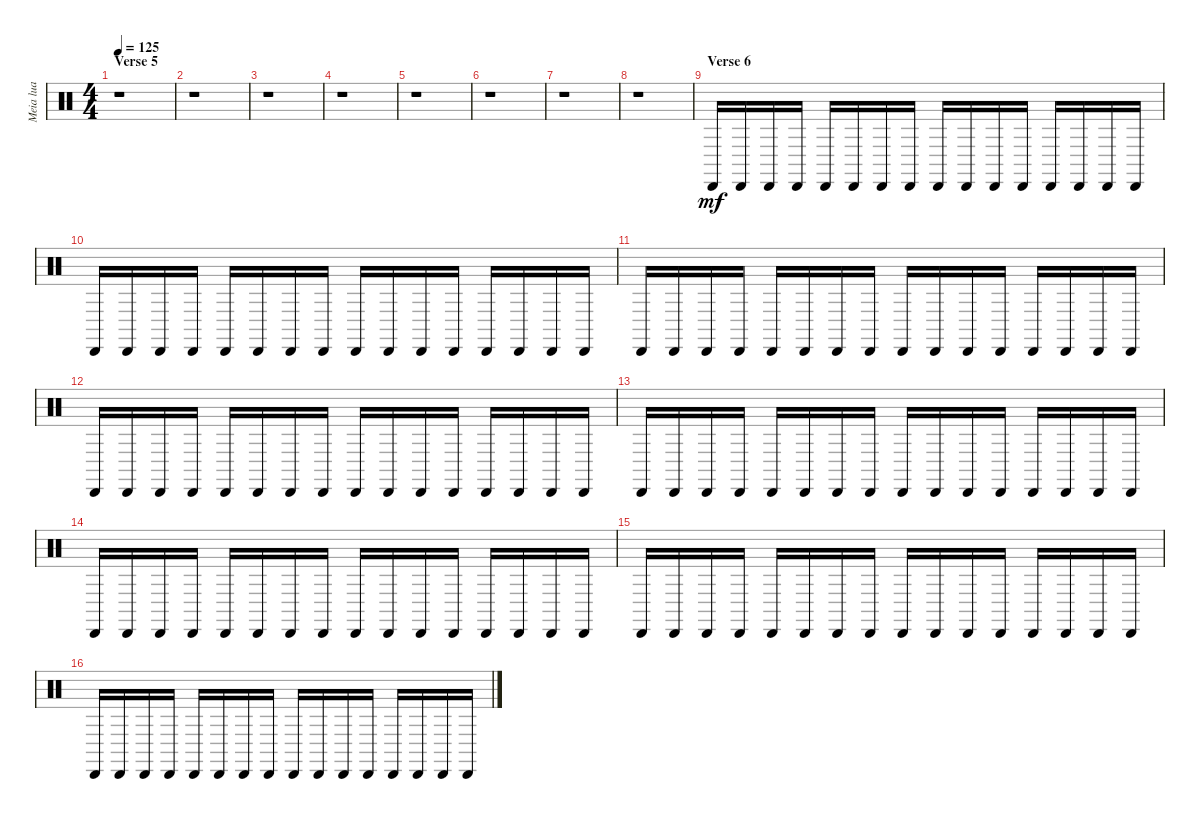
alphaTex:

\track ("Meia lua" "Meia lua") {instrument percussion}
\staff {score}
\articulation defaults
\ts (4 4)
\section ("" "Verse 5")
\tempo 125
\clef neutral
\ks c
r.1{dy mf} |
r.1 |
r.1 |
r.1 |
r.1 |
r.1 |
r.1 |
r.1 |
\section ("" "Verse 6")
"Cabasa (hit)".16 "Cabasa (hit)".16 "Cabasa (hit)".16 "Cabasa (hit)".16 "Cabasa (hit)".16 "Cabasa (hit)".16 "Cabasa (hit)".16 "Cabasa (hit)".16 "Cabasa (hit)".16 "Cabasa (hit)".16 "Cabasa (hit)".16 "Cabasa (hit)".16 "Cabasa (hit)".16 "Cabasa (hit)".16 "Cabasa (hit)".16 "Cabasa (hit)".16 |
"Cabasa (hit)".16 "Cabasa (hit)".16 "Cabasa (hit)".16 "Cabasa (hit)".16 "Cabasa (hit)".16 "Cabasa (hit)".16 "Cabasa (hit)".16 "Cabasa (hit)".16 "Cabasa (hit)".16 "Cabasa (hit)".16 "Cabasa (hit)".16 "Cabasa (hit)".16 "Cabasa (hit)".16 "Cabasa (hit)".16 "Cabasa (hit)".16 "Cabasa (hit)".16 |
"Cabasa (hit)".16 "Cabasa (hit)".16 "Cabasa (hit)".16 "Cabasa (hit)".16 "Cabasa (hit)".16 "Cabasa (hit)".16 "Cabasa (hit)".16 "Cabasa (hit)".16 "Cabasa (hit)".16 "Cabasa (hit)".16 "Cabasa (hit)".16 "Cabasa (hit)".16 "Cabasa (hit)".16 "Cabasa (hit)".16 "Cabasa (hit)".16 "Cabasa (hit)".16 |
"Cabasa (hit)".16 "Cabasa (hit)".16 "Cabasa (hit)".16 "Cabasa (hit)".16 "Cabasa (hit)".16 "Cabasa (hit)".16 "Cabasa (hit)".16 "Cabasa (hit)".16 "Cabasa (hit)".16 "Cabasa (hit)".16 "Cabasa (hit)".16 "Cabasa (hit)".16 "Cabasa (hit)".16 "Cabasa (hit)".16 "Cabasa (hit)".16 "Cabasa (hit)".16 |
"Cabasa (hit)".16 "Cabasa (hit)".16 "Cabasa (hit)".16 "Cabasa (hit)".16 "Cabasa (hit)".16 "Cabasa (hit)".16 "Cabasa (hit)".16 "Cabasa (hit)".16 "Cabasa (hit)".16 "Cabasa (hit)".16 "Cabasa (hit)".16 "Cabasa (hit)".16 "Cabasa (hit)".16 "Cabasa (hit)".16 "Cabasa (hit)".16 "Cabasa (hit)".16 |
"Cabasa (hit)".16 "Cabasa (hit)".16 "Cabasa (hit)".16 "Cabasa (hit)".16 "Cabasa (hit)".16 "Cabasa (hit)".16 "Cabasa (hit)".16 "Cabasa (hit)".16 "Cabasa (hit)".16 "Cabasa (hit)".16 "Cabasa (hit)".16 "Cabasa (hit)".16 "Cabasa (hit)".16 "Cabasa (hit)".16 "Cabasa (hit)".16 "Cabasa (hit)".16 |
"Cabasa (hit)".16 "Cabasa (hit)".16 "Cabasa (hit)".16 "Cabasa (hit)".16 "Cabasa (hit)".16 "Cabasa (hit)".16 "Cabasa (hit)".16 "Cabasa (hit)".16 "Cabasa (hit)".16 "Cabasa (hit)".16 "Cabasa (hit)".16 "Cabasa (hit)".16 "Cabasa (hit)".16 "Cabasa (hit)".16 "Cabasa (hit)".16 "Cabasa (hit)".16 |
"Cabasa (hit)".16 "Cabasa (hit)".16 "Cabasa (hit)".16 "Cabasa (hit)".16 "Cabasa (hit)".16 "Cabasa (hit)".16 "Cabasa (hit)".16 "Cabasa (hit)".16 "Cabasa (hit)".16 "Cabasa (hit)".16 "Cabasa (hit)".16 "Cabasa (hit)".16 "Cabasa (hit)".16 "Cabasa (hit)".16 "Cabasa (hit)".16 "Cabasa (hit)".16
